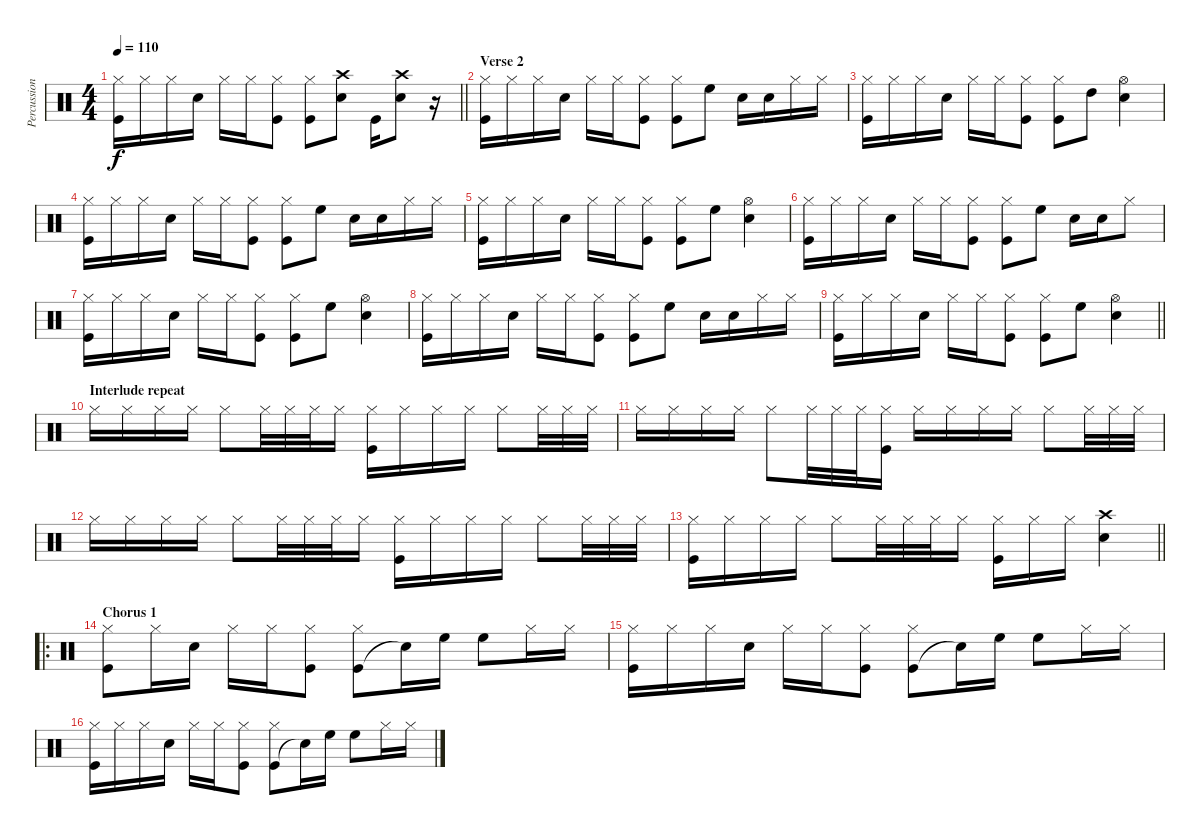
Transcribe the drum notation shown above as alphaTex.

\track ("Percussion" "Percussion") {instrument percussion}
\staff {score}
\articulation defaults
\ts (4 4)
\tempo 110
\clef neutral
\barLineRight lightlight
\ks c
("Kick (hit)" "Hi-Hat (closed)").16{dy f} "Hi-Hat (closed)".16 "Hi-Hat (closed)".16 "Snare (hit) 2".16 "Hi-Hat (closed)".16 "Hi-Hat (closed)".16 ("Kick (hit)" "Hi-Hat (closed)").8 ("Kick (hit)" "Hi-Hat (closed)").8 ("Crash high (hit)" "Snare (hit) 2").8 "Kick (hit)".16 ("Crash high (hit)" "Snare (hit) 2").8 r.16 |
\section ("" "Verse 2")
("Kick (hit)" "Hi-Hat (closed)").16 "Hi-Hat (closed)".16 "Hi-Hat (closed)".16 "Snare (hit) 2".16 "Hi-Hat (closed)".16 "Hi-Hat (closed)".16 ("Kick (hit)" "Hi-Hat (closed)").8 ("Kick (hit)" "Hi-Hat (closed)").8 "High Floor Tom (hit)".8 "Snare (hit) 2".16 "Snare (hit) 2".16 "Hi-Hat (closed)".16 "Hi-Hat (closed)".16 |
("Kick (hit)" "Hi-Hat (closed)").16 "Hi-Hat (closed)".16 "Hi-Hat (closed)".16 "Snare (hit) 2".16 "Hi-Hat (closed)".16 "Hi-Hat (closed)".16 ("Kick (hit)" "Hi-Hat (closed)").8 ("Kick (hit)" "Hi-Hat (closed)").8 "High Tom (hit)".8 ("Hi-Hat (open)" "Snare (hit) 2").4 |
("Kick (hit)" "Hi-Hat (closed)").16 "Hi-Hat (closed)".16 "Hi-Hat (closed)".16 "Snare (hit) 2".16 "Hi-Hat (closed)".16 "Hi-Hat (closed)".16 ("Kick (hit)" "Hi-Hat (closed)").8 ("Kick (hit)" "Hi-Hat (closed)").8 "High Floor Tom (hit)".8 "Snare (hit) 2".16 "Snare (hit) 2".16 "Hi-Hat (closed)".16 "Hi-Hat (closed)".16 |
("Kick (hit)" "Hi-Hat (closed)").16 "Hi-Hat (closed)".16 "Hi-Hat (closed)".16 "Snare (hit) 2".16 "Hi-Hat (closed)".16 "Hi-Hat (closed)".16 ("Kick (hit)" "Hi-Hat (closed)").8 ("Kick (hit)" "Hi-Hat (closed)").8 "High Floor Tom (hit)".8 ("Hi-Hat (open)" "Snare (hit) 2").4 |
("Kick (hit)" "Hi-Hat (closed)").16 "Hi-Hat (closed)".16 "Hi-Hat (closed)".16 "Snare (hit) 2".16 "Hi-Hat (closed)".16 "Hi-Hat (closed)".16 ("Kick (hit)" "Hi-Hat (closed)").8 ("Kick (hit)" "Hi-Hat (closed)").8 "High Floor Tom (hit)".8 "Snare (hit) 2".16 "Snare (hit) 2".16 "Hi-Hat (closed)".8 |
("Kick (hit)" "Hi-Hat (closed)").16 "Hi-Hat (closed)".16 "Hi-Hat (closed)".16 "Snare (hit) 2".16 "Hi-Hat (closed)".16 "Hi-Hat (closed)".16 ("Kick (hit)" "Hi-Hat (closed)").8 ("Kick (hit)" "Hi-Hat (closed)").8 "High Floor Tom (hit)".8 ("Hi-Hat (open)" "Snare (hit) 2").4 |
("Kick (hit)" "Hi-Hat (closed)").16 "Hi-Hat (closed)".16 "Hi-Hat (closed)".16 "Snare (hit) 2".16 "Hi-Hat (closed)".16 "Hi-Hat (closed)".16 ("Kick (hit)" "Hi-Hat (closed)").8 ("Kick (hit)" "Hi-Hat (closed)").8 "High Floor Tom (hit)".8 "Snare (hit) 2".16 "Snare (hit) 2".16 "Hi-Hat (closed)".16 "Hi-Hat (closed)".16 |
\barLineRight lightlight
("Kick (hit)" "Hi-Hat (closed)").16 "Hi-Hat (closed)".16 "Hi-Hat (closed)".16 "Snare (hit) 2".16 "Hi-Hat (closed)".16 "Hi-Hat (closed)".16 ("Kick (hit)" "Hi-Hat (closed)").8 ("Kick (hit)" "Hi-Hat (closed)").8 "High Floor Tom (hit)".8 ("Hi-Hat (open)" "Snare (hit) 2").4 |
\section ("" "Interlude repeat")
"Hi-Hat (closed)".16 "Hi-Hat (closed)".16 "Hi-Hat (closed)".16 "Hi-Hat (closed)".16 "Hi-Hat (closed)".8 "Hi-Hat (closed)".32 "Hi-Hat (closed)".32 "Hi-Hat (closed)".32 "Hi-Hat (closed)".16 ("Kick (hit)" "Hi-Hat (closed)").16 "Hi-Hat (closed)".16 "Hi-Hat (closed)".16 "Hi-Hat (closed)".16 "Hi-Hat (closed)".8 "Hi-Hat (closed)".32 "Hi-Hat (closed)".32 "Hi-Hat (closed)".32 |
"Hi-Hat (closed)".16 "Hi-Hat (closed)".16 "Hi-Hat (closed)".16 "Hi-Hat (closed)".16 "Hi-Hat (closed)".8 "Hi-Hat (closed)".32 "Hi-Hat (closed)".32 "Hi-Hat (closed)".32 ("Kick (hit)" "Hi-Hat (closed)").16 "Hi-Hat (closed)".16 "Hi-Hat (closed)".16 "Hi-Hat (closed)".16 "Hi-Hat (closed)".16 "Hi-Hat (closed)".8 "Hi-Hat (closed)".32 "Hi-Hat (closed)".32 "Hi-Hat (closed)".32 |
"Hi-Hat (closed)".16 "Hi-Hat (closed)".16 "Hi-Hat (closed)".16 "Hi-Hat (closed)".16 "Hi-Hat (closed)".8 "Hi-Hat (closed)".32 "Hi-Hat (closed)".32 "Hi-Hat (closed)".32 "Hi-Hat (closed)".16 ("Kick (hit)" "Hi-Hat (closed)").16 "Hi-Hat (closed)".16 "Hi-Hat (closed)".16 "Hi-Hat (closed)".16 "Hi-Hat (closed)".8 "Hi-Hat (closed)".32 "Hi-Hat (closed)".32 "Hi-Hat (closed)".32 |
\barLineRight lightlight
("Kick (hit)" "Hi-Hat (closed)").16 "Hi-Hat (closed)".16 "Hi-Hat (closed)".16 "Hi-Hat (closed)".16 "Hi-Hat (closed)".8 "Hi-Hat (closed)".32 "Hi-Hat (closed)".32 "Hi-Hat (closed)".32 "Hi-Hat (closed)".16 ("Kick (hit)" "Hi-Hat (closed)").16 "Hi-Hat (closed)".16 "Hi-Hat (closed)".16 ("Crash high (hit)" "Snare (hit) 2").4 |
\ro
\section ("" "Chorus 1")
("Kick (hit)" "Hi-Hat (closed)").8 "Hi-Hat (closed)".16 "Snare (hit) 2".16 "Hi-Hat (closed)".16 "Hi-Hat (closed)".16 ("Kick (hit)" "Hi-Hat (closed)").8 ("Kick (hit)" "Hi-Hat (closed)").8 "Snare (hit)"{t}.16 "High Floor Tom (hit)".16 "High Floor Tom (hit)".8 "Hi-Hat (closed)".16 "Hi-Hat (closed)".16 |
("Kick (hit)" "Hi-Hat (closed)").16 "Hi-Hat (closed)".16 "Hi-Hat (closed)".16 "Snare (hit) 2".16 "Hi-Hat (closed)".16 "Hi-Hat (closed)".16 ("Kick (hit)" "Hi-Hat (closed)").8 ("Kick (hit)" "Hi-Hat (closed)").8 "Snare (hit)"{t}.16 "High Floor Tom (hit)".16 "High Floor Tom (hit)".8 "Hi-Hat (closed)".16 "Hi-Hat (closed)".16 |
("Kick (hit)" "Hi-Hat (closed)").16 "Hi-Hat (closed)".16 "Hi-Hat (closed)".16 "Snare (hit) 2".16 "Hi-Hat (closed)".16 "Hi-Hat (closed)".16 ("Kick (hit)" "Hi-Hat (closed)").8 ("Kick (hit)" "Hi-Hat (closed)").8 "Snare (hit)"{t}.16 "High Floor Tom (hit)".16 "High Floor Tom (hit)".8 "Hi-Hat (closed)".16 "Hi-Hat (closed)".16
